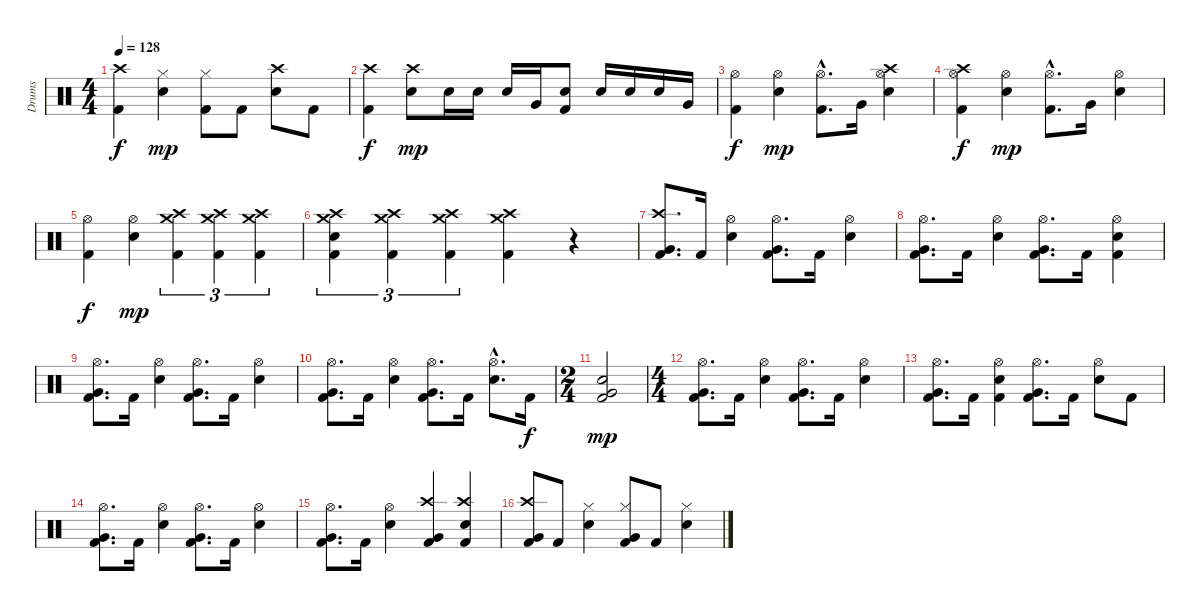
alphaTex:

\track ("Drums" "Drums") {instrument percussion}
\staff {score}
\articulation defaults
\ts (4 4)
\tempo 128
\clef neutral
\ks c
("Kick (hit) 2" "Crash high (hit)").4{dy f} ("Electric Snare (hit)" "Hi-Hat (closed)").4{dy mp} ("Kick (hit) 2" "Hi-Hat (closed)").8 "Kick (hit) 2".8 ("Electric Snare (hit)" "Crash high (hit)").8 "Kick (hit) 2".8 |
("Kick (hit) 2" "Crash high (hit)").4{dy f} ("Electric Snare (hit)" "Crash high (hit)").8{dy mp} "Electric Snare (hit)".16 "Electric Snare (hit)".16 "Electric Snare (hit)".16 "Very Low Tom (hit)".16 ("Kick (hit) 2" "Electric Snare (hit)").8 "Electric Snare (hit)".16 "Electric Snare (hit)".16 "Electric Snare (hit)".16 "Very Low Tom (hit)".16 |
("Kick (hit) 2" "Hi-Hat (open)").4{dy f} ("Electric Snare (hit)" "Hi-Hat (open)").4{dy mp} ("Kick (hit) 2"{hac} "Hi-Hat (open)").8{d} "Very Low Tom (hit)".16 ("Electric Snare (hit)" "Hi-Hat (open)" "Crash high (hit)").4 |
("Kick (hit) 2" "Hi-Hat (open)" "Crash high (hit)").4{dy f} ("Electric Snare (hit)" "Hi-Hat (open)").4{dy mp} ("Kick (hit) 2"{hac} "Hi-Hat (open)").8{d} "Very Low Tom (hit)".16 ("Electric Snare (hit)" "Hi-Hat (open)").4 |
("Kick (hit) 2" "Hi-Hat (open)").4{dy f} ("Electric Snare (hit)" "Hi-Hat (open)").4{dy mp} ("Kick (hit) 2" "Crash high (hit)" "Crash medium (hit)").4{tu (3 2)} ("Kick (hit) 2" "Crash high (hit)" "Crash medium (hit)").4{tu (3 2)} ("Kick (hit) 2" "Crash high (hit)" "Crash medium (hit)").4{tu (3 2)} |
("Kick (hit) 2" "Electric Snare (hit)" "Crash high (hit)" "Crash medium (hit)").4{tu (3 2)} ("Kick (hit) 2" "Crash high (hit)" "Crash medium (hit)").4{tu (3 2)} ("Kick (hit) 2" "Crash high (hit)" "Crash medium (hit)").4{tu (3 2)} ("Kick (hit) 2" "Crash high (hit)" "Crash medium (hit)").4 r.4 |
("Kick (hit) 2" "Very Low Tom (hit)" "Crash high (hit)").8{d} "Kick (hit) 2".16 ("Electric Snare (hit)" "Hi-Hat (open)").4 ("Kick (hit) 2" "Very Low Tom (hit)" "Hi-Hat (open)").8{d} "Kick (hit) 2".16 ("Electric Snare (hit)" "Hi-Hat (open)").4 |
("Kick (hit) 2" "Very Low Tom (hit)" "Hi-Hat (open)").8{d} "Kick (hit) 2".16 ("Electric Snare (hit)" "Hi-Hat (open)").4 ("Kick (hit) 2" "Very Low Tom (hit)" "Hi-Hat (open)").8{d} "Kick (hit) 2".16 ("Kick (hit) 2" "Electric Snare (hit)" "Hi-Hat (open)").4 |
("Kick (hit) 2" "Very Low Tom (hit)" "Hi-Hat (open)").8{d} "Kick (hit) 2".16 ("Electric Snare (hit)" "Hi-Hat (open)").4 ("Kick (hit) 2" "Very Low Tom (hit)" "Hi-Hat (open)").8{d} "Kick (hit) 2".16 ("Electric Snare (hit)" "Hi-Hat (open)").4 |
("Kick (hit) 2" "Very Low Tom (hit)" "Hi-Hat (open)").8{d} "Kick (hit) 2".16 ("Electric Snare (hit)" "Hi-Hat (open)").4 ("Kick (hit) 2" "Very Low Tom (hit)" "Hi-Hat (open)").8{d} "Kick (hit) 2".16 ("Electric Snare (hit)"{hac} "Hi-Hat (open)"{hac}).8{d} "Kick (hit) 2".16{dy f} |
\ts (2 4)
("Kick (hit) 2" "Electric Snare (hit)" "Very Low Tom (hit)").2{dy mp} |
\ts (4 4)
("Kick (hit) 2" "Very Low Tom (hit)" "Hi-Hat (open)").8{d} "Kick (hit) 2".16 ("Electric Snare (hit)" "Hi-Hat (open)").4 ("Kick (hit) 2" "Very Low Tom (hit)" "Hi-Hat (open)").8{d} "Kick (hit) 2".16 ("Electric Snare (hit)" "Hi-Hat (open)").4 |
("Kick (hit) 2" "Very Low Tom (hit)" "Hi-Hat (open)").8{d} "Kick (hit) 2".16 ("Kick (hit) 2" "Electric Snare (hit)" "Hi-Hat (open)").4 ("Kick (hit) 2" "Very Low Tom (hit)" "Hi-Hat (open)").8{d} "Kick (hit) 2".16 ("Electric Snare (hit)" "Hi-Hat (open)").8 "Kick (hit) 2".8 |
("Kick (hit) 2" "Very Low Tom (hit)" "Hi-Hat (open)").8{d} "Kick (hit) 2".16 ("Electric Snare (hit)" "Hi-Hat (open)").4 ("Kick (hit) 2" "Very Low Tom (hit)" "Hi-Hat (open)").8{d} "Kick (hit) 2".16 ("Electric Snare (hit)" "Hi-Hat (open)").4 |
("Kick (hit) 2" "Very Low Tom (hit)" "Hi-Hat (open)").8{d} "Kick (hit) 2".16 ("Electric Snare (hit)" "Hi-Hat (open)").4 ("Kick (hit) 2" "Very Low Tom (hit)" "Crash high (hit)").4 ("Kick (hit) 2" "Electric Snare (hit)" "Crash high (hit)").4 |
("Kick (hit) 2" "Very Low Tom (hit)" "Crash high (hit)").8 "Kick (hit) 2".8 ("Electric Snare (hit)" "Hi-Hat (closed)").4 ("Kick (hit) 2" "Very Low Tom (hit)" "Hi-Hat (closed)").8 "Kick (hit) 2".8 ("Electric Snare (hit)" "Hi-Hat (closed)").4
